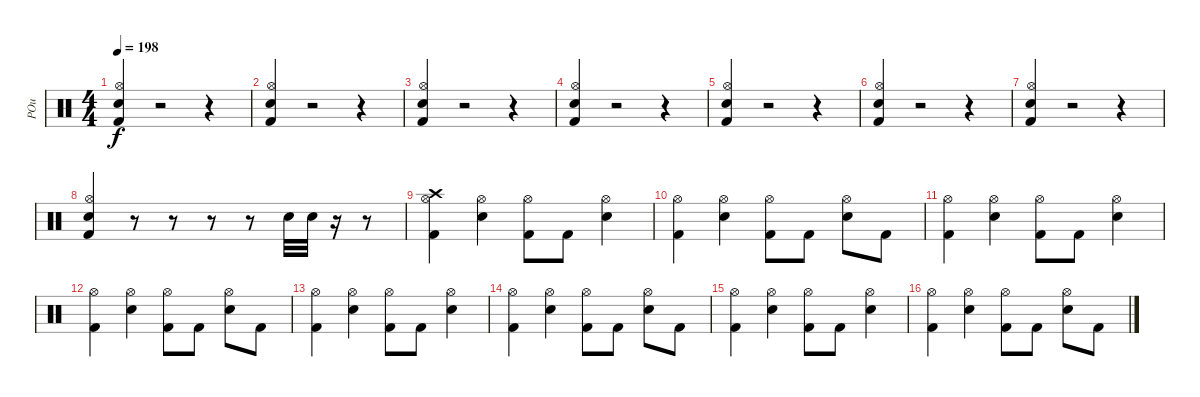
\track ("POu" "POu") {instrument percussion}
\staff {score}
\articulation defaults
\ts (4 4)
\tempo 198
\clef neutral
\ks c
("Electric Snare (hit)" "Hi-Hat (open)" "Kick (hit) 2").4{dy f} r.2 r.4 |
("Electric Snare (hit)" "Hi-Hat (open)" "Kick (hit) 2").4 r.2 r.4 |
("Electric Snare (hit)" "Hi-Hat (open)" "Kick (hit) 2").4 r.2 r.4 |
("Electric Snare (hit)" "Hi-Hat (open)" "Kick (hit) 2").4 r.2 r.4 |
("Electric Snare (hit)" "Hi-Hat (open)" "Kick (hit) 2").4 r.2 r.4 |
("Electric Snare (hit)" "Hi-Hat (open)" "Kick (hit) 2").4 r.2 r.4 |
("Electric Snare (hit)" "Hi-Hat (open)" "Kick (hit) 2").4 r.2 r.4 |
("Electric Snare (hit)" "Hi-Hat (open)" "Kick (hit) 2").4 r.8 r.8 r.8 r.8 "Electric Snare (hit)".32 "Electric Snare (hit)".32 r.16 r.8 |
("Crash high (hit)" "Kick (hit) 2" "Hi-Hat (open)").4 ("Electric Snare (hit)" "Hi-Hat (open)").4 ("Kick (hit) 2" "Hi-Hat (open)").8 "Kick (hit) 2".8 ("Electric Snare (hit)" "Hi-Hat (open)").4 |
("Kick (hit) 2" "Hi-Hat (open)").4 ("Electric Snare (hit)" "Hi-Hat (open)").4 ("Kick (hit) 2" "Hi-Hat (open)").8 "Kick (hit) 2".8 ("Electric Snare (hit)" "Hi-Hat (open)").8 "Kick (hit) 2".8 |
("Kick (hit) 2" "Hi-Hat (open)").4 ("Electric Snare (hit)" "Hi-Hat (open)").4 ("Kick (hit) 2" "Hi-Hat (open)").8 "Kick (hit) 2".8 ("Electric Snare (hit)" "Hi-Hat (open)").4 |
("Kick (hit) 2" "Hi-Hat (open)").4 ("Electric Snare (hit)" "Hi-Hat (open)").4 ("Kick (hit) 2" "Hi-Hat (open)").8 "Kick (hit) 2".8 ("Electric Snare (hit)" "Hi-Hat (open)").8 "Kick (hit) 2".8 |
("Kick (hit) 2" "Hi-Hat (open)").4 ("Electric Snare (hit)" "Hi-Hat (open)").4 ("Kick (hit) 2" "Hi-Hat (open)").8 "Kick (hit) 2".8 ("Electric Snare (hit)" "Hi-Hat (open)").4 |
("Kick (hit) 2" "Hi-Hat (open)").4 ("Electric Snare (hit)" "Hi-Hat (open)").4 ("Kick (hit) 2" "Hi-Hat (open)").8 "Kick (hit) 2".8 ("Electric Snare (hit)" "Hi-Hat (open)").8 "Kick (hit) 2".8 |
("Kick (hit) 2" "Hi-Hat (open)").4 ("Electric Snare (hit)" "Hi-Hat (open)").4 ("Kick (hit) 2" "Hi-Hat (open)").8 "Kick (hit) 2".8 ("Electric Snare (hit)" "Hi-Hat (open)").4 |
("Kick (hit) 2" "Hi-Hat (open)").4 ("Electric Snare (hit)" "Hi-Hat (open)").4 ("Kick (hit) 2" "Hi-Hat (open)").8 "Kick (hit) 2".8 ("Electric Snare (hit)" "Hi-Hat (open)").8 "Kick (hit) 2".8
